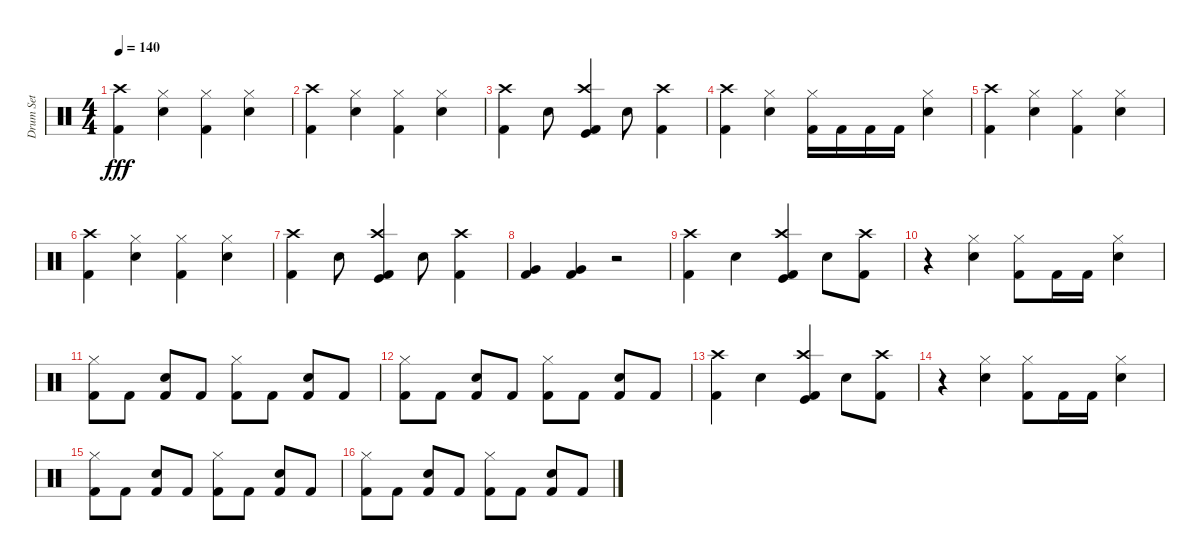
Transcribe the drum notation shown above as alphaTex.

\track ("Drum Set" "Drum Set") {instrument percussion}
\staff {score}
\articulation defaults
\ts (4 4)
\tempo 140
\clef neutral
\ks c
("Kick (hit) 2" "Crash high (hit)").4{dy fff} ("Electric Snare (hit)" "Hi-Hat (closed)").4 ("Kick (hit) 2" "Hi-Hat (closed)").4 ("Electric Snare (hit)" "Hi-Hat (closed)").4 |
("Kick (hit) 2" "Crash high (hit)").4 ("Electric Snare (hit)" "Hi-Hat (closed)").4 ("Kick (hit) 2" "Hi-Hat (closed)").4 ("Electric Snare (hit)" "Hi-Hat (closed)").4 |
("Kick (hit) 2" "Crash high (hit)").4 "Electric Snare (hit)".8 ("Kick (hit)" "Kick (hit) 2" "Crash high (hit)").4 "Electric Snare (hit)".8 ("Crash high (hit)" "Kick (hit) 2").4 |
("Kick (hit) 2" "Crash high (hit)").4 ("Electric Snare (hit)" "Hi-Hat (closed)").4 ("Kick (hit) 2" "Hi-Hat (closed)").16 "Kick (hit) 2".16 "Kick (hit) 2".16 "Kick (hit) 2".16 ("Electric Snare (hit)" "Hi-Hat (closed)").4 |
("Kick (hit) 2" "Crash high (hit)").4 ("Electric Snare (hit)" "Hi-Hat (closed)").4 ("Kick (hit) 2" "Hi-Hat (closed)").4 ("Electric Snare (hit)" "Hi-Hat (closed)").4 |
("Kick (hit) 2" "Crash high (hit)").4 ("Electric Snare (hit)" "Hi-Hat (closed)").4 ("Kick (hit) 2" "Hi-Hat (closed)").4 ("Electric Snare (hit)" "Hi-Hat (closed)").4 |
("Kick (hit) 2" "Crash high (hit)").4 "Electric Snare (hit)".8 ("Kick (hit)" "Crash high (hit)" "Kick (hit) 2").4 "Electric Snare (hit)".8 ("Kick (hit) 2" "Crash high (hit)").4 |
("Kick (hit) 2" "Very Low Tom (hit)").4 ("Kick (hit) 2" "Very Low Tom (hit)").4 r.2 |
("Kick (hit) 2" "Crash high (hit)").4 "Electric Snare (hit)".4 ("Kick (hit)" "Kick (hit) 2" "Crash high (hit)").4 "Electric Snare (hit)".8 ("Kick (hit) 2" "Crash high (hit)").8 |
r.4 ("Electric Snare (hit)" "Hi-Hat (closed)").4 ("Hi-Hat (closed)" "Kick (hit) 2").8 "Kick (hit) 2".16 "Kick (hit) 2".16 ("Electric Snare (hit)" "Hi-Hat (closed)").4 |
("Kick (hit) 2" "Hi-Hat (closed)").8 "Kick (hit) 2".8 ("Electric Snare (hit)" "Kick (hit) 2").8 "Kick (hit) 2".8 ("Hi-Hat (closed)" "Kick (hit) 2").8 "Kick (hit) 2".8 ("Electric Snare (hit)" "Kick (hit) 2").8 "Kick (hit) 2".8 |
("Hi-Hat (closed)" "Kick (hit) 2").8 "Kick (hit) 2".8 ("Electric Snare (hit)" "Kick (hit) 2").8 "Kick (hit) 2".8 ("Kick (hit) 2" "Hi-Hat (closed)").8 "Kick (hit) 2".8 ("Electric Snare (hit)" "Kick (hit) 2").8 "Kick (hit) 2".8 |
("Kick (hit) 2" "Crash high (hit)").4 "Electric Snare (hit)".4 ("Kick (hit)" "Crash high (hit)" "Kick (hit) 2").4 "Electric Snare (hit)".8 ("Kick (hit) 2" "Crash high (hit)").8 |
r.4 ("Electric Snare (hit)" "Hi-Hat (closed)").4 ("Hi-Hat (closed)" "Kick (hit) 2").8 "Kick (hit) 2".16 "Kick (hit) 2".16 ("Electric Snare (hit)" "Hi-Hat (closed)").4 |
("Kick (hit) 2" "Hi-Hat (closed)").8 "Kick (hit) 2".8 ("Electric Snare (hit)" "Kick (hit) 2").8 "Kick (hit) 2".8 ("Kick (hit) 2" "Hi-Hat (closed)").8 "Kick (hit) 2".8 ("Electric Snare (hit)" "Kick (hit) 2").8 "Kick (hit) 2".8 |
("Hi-Hat (closed)" "Kick (hit) 2").8 "Kick (hit) 2".8 ("Electric Snare (hit)" "Kick (hit) 2").8 "Kick (hit) 2".8 ("Kick (hit) 2" "Hi-Hat (closed)").8 "Kick (hit) 2".8 ("Electric Snare (hit)" "Kick (hit) 2").8 "Kick (hit) 2".8
